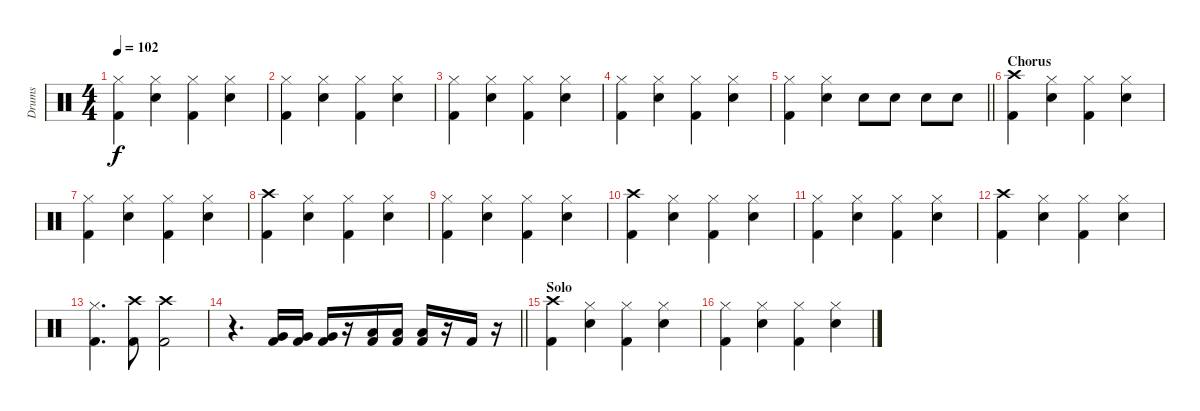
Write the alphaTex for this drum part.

\track ("Drums" "Drums") {instrument percussion}
\staff {score}
\articulation defaults
\ts (4 4)
\tempo 102
\clef neutral
\ks c
("Kick (hit) 2" "Hi-Hat (closed)").4{dy f} ("Snare (hit) 2" "Hi-Hat (closed)").4 ("Kick (hit) 2" "Hi-Hat (closed)").4 ("Snare (hit) 2" "Hi-Hat (closed)").4 |
("Kick (hit) 2" "Hi-Hat (closed)").4 ("Snare (hit) 2" "Hi-Hat (closed)").4 ("Kick (hit) 2" "Hi-Hat (closed)").4 ("Snare (hit) 2" "Hi-Hat (closed)").4 |
("Kick (hit) 2" "Hi-Hat (closed)").4 ("Snare (hit) 2" "Hi-Hat (closed)").4 ("Kick (hit) 2" "Hi-Hat (closed)").4 ("Snare (hit) 2" "Hi-Hat (closed)").4 |
("Kick (hit) 2" "Hi-Hat (closed)").4 ("Snare (hit) 2" "Hi-Hat (closed)").4 ("Kick (hit) 2" "Hi-Hat (closed)").4 ("Snare (hit) 2" "Hi-Hat (closed)").4 |
\barLineRight lightlight
("Kick (hit) 2" "Hi-Hat (closed)").4 ("Snare (hit) 2" "Hi-Hat (closed)").4 "Snare (hit) 2".8 "Snare (hit) 2".8 "Snare (hit) 2".8 "Snare (hit) 2".8 |
\section ("" "Chorus")
("Kick (hit) 2" "Crash high (hit)").4 ("Snare (hit) 2" "Hi-Hat (closed)").4 ("Kick (hit) 2" "Hi-Hat (closed)").4 ("Snare (hit) 2" "Hi-Hat (closed)").4 |
("Kick (hit) 2" "Hi-Hat (closed)").4 ("Snare (hit) 2" "Hi-Hat (closed)").4 ("Kick (hit) 2" "Hi-Hat (closed)").4 ("Snare (hit) 2" "Hi-Hat (closed)").4 |
("Kick (hit) 2" "Crash high (hit)").4 ("Snare (hit) 2" "Hi-Hat (closed)").4 ("Kick (hit) 2" "Hi-Hat (closed)").4 ("Snare (hit) 2" "Hi-Hat (closed)").4 |
("Kick (hit) 2" "Hi-Hat (closed)").4 ("Snare (hit) 2" "Hi-Hat (closed)").4 ("Kick (hit) 2" "Hi-Hat (closed)").4 ("Snare (hit) 2" "Hi-Hat (closed)").4 |
("Kick (hit) 2" "Crash high (hit)").4 ("Snare (hit) 2" "Hi-Hat (closed)").4 ("Kick (hit) 2" "Hi-Hat (closed)").4 ("Snare (hit) 2" "Hi-Hat (closed)").4 |
("Kick (hit) 2" "Hi-Hat (closed)").4 ("Snare (hit) 2" "Hi-Hat (closed)").4 ("Kick (hit) 2" "Hi-Hat (closed)").4 ("Snare (hit) 2" "Hi-Hat (closed)").4 |
("Kick (hit) 2" "Crash high (hit)").4 ("Snare (hit) 2" "Hi-Hat (closed)").4 ("Kick (hit) 2" "Hi-Hat (closed)").4 ("Snare (hit) 2" "Hi-Hat (closed)").4 |
("Kick (hit) 2" "Hi-Hat (closed)").4{d} ("Kick (hit) 2" "Crash high (hit)").8 ("Kick (hit) 2" "Crash high (hit)").2 |
\barLineRight lightlight
r.4{d} ("Kick (hit) 2" "Very Low Tom (hit)").16 ("Kick (hit) 2" "Very Low Tom (hit)").16 ("Kick (hit) 2" "Very Low Tom (hit)").16 r.16 ("Kick (hit) 2" "Low Floor Tom (hit)").16 ("Kick (hit) 2" "Low Floor Tom (hit)").16 ("Kick (hit) 2" "Low Floor Tom (hit)").16 r.16 "Kick (hit) 2".16 r.16 |
\section ("" "Solo")
("Kick (hit) 2" "Crash high (hit)").4 ("Snare (hit) 2" "Hi-Hat (closed)").4 ("Kick (hit) 2" "Hi-Hat (closed)").4 ("Snare (hit) 2" "Hi-Hat (closed)").4 |
("Kick (hit) 2" "Hi-Hat (closed)").4 ("Snare (hit) 2" "Hi-Hat (closed)").4 ("Kick (hit) 2" "Hi-Hat (closed)").4 ("Snare (hit) 2" "Hi-Hat (closed)").4
